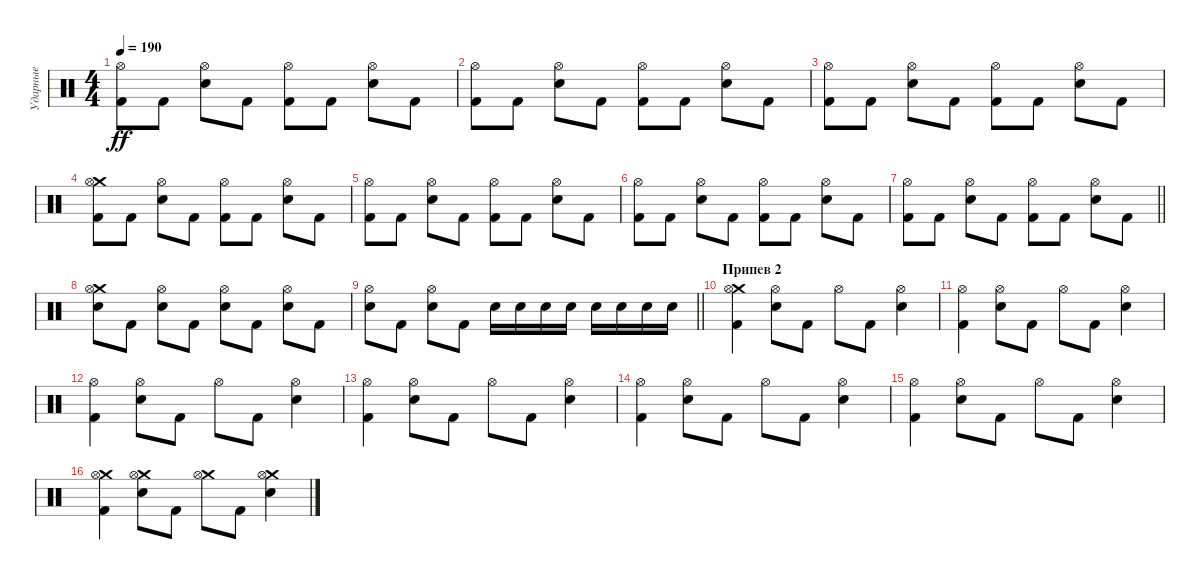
\track ("Ударные" "Ударные") {instrument percussion}
\staff {score}
\articulation defaults
\ts (4 4)
\tempo 190
\clef neutral
\ks c
("Kick (hit) 2" "Hi-Hat (open)").8{dy ff} "Kick (hit) 2".8 ("Electric Snare (hit)" "Hi-Hat (open)").8 "Kick (hit) 2".8 ("Kick (hit) 2" "Hi-Hat (open)").8 "Kick (hit) 2".8 ("Electric Snare (hit)" "Hi-Hat (open)").8 "Kick (hit) 2".8 |
("Kick (hit) 2" "Hi-Hat (open)").8 "Kick (hit) 2".8 ("Electric Snare (hit)" "Hi-Hat (open)").8 "Kick (hit) 2".8 ("Kick (hit) 2" "Hi-Hat (open)").8 "Kick (hit) 2".8 ("Electric Snare (hit)" "Hi-Hat (open)").8 "Kick (hit) 2".8 |
("Kick (hit) 2" "Hi-Hat (open)").8 "Kick (hit) 2".8 ("Electric Snare (hit)" "Hi-Hat (open)").8 "Kick (hit) 2".8 ("Kick (hit) 2" "Hi-Hat (open)").8 "Kick (hit) 2".8 ("Electric Snare (hit)" "Hi-Hat (open)").8 "Kick (hit) 2".8 |
("Crash medium (hit)" "Kick (hit) 2" "Hi-Hat (open)").8 "Kick (hit) 2".8 ("Electric Snare (hit)" "Hi-Hat (open)").8 "Kick (hit) 2".8 ("Kick (hit) 2" "Hi-Hat (open)").8 "Kick (hit) 2".8 ("Electric Snare (hit)" "Hi-Hat (open)").8 "Kick (hit) 2".8 |
("Kick (hit) 2" "Hi-Hat (open)").8 "Kick (hit) 2".8 ("Electric Snare (hit)" "Hi-Hat (open)").8 "Kick (hit) 2".8 ("Kick (hit) 2" "Hi-Hat (open)").8 "Kick (hit) 2".8 ("Electric Snare (hit)" "Hi-Hat (open)").8 "Kick (hit) 2".8 |
("Kick (hit) 2" "Hi-Hat (open)").8 "Kick (hit) 2".8 ("Electric Snare (hit)" "Hi-Hat (open)").8 "Kick (hit) 2".8 ("Kick (hit) 2" "Hi-Hat (open)").8 "Kick (hit) 2".8 ("Electric Snare (hit)" "Hi-Hat (open)").8 "Kick (hit) 2".8 |
\barLineRight lightlight
("Kick (hit) 2" "Hi-Hat (open)").8 "Kick (hit) 2".8 ("Electric Snare (hit)" "Hi-Hat (open)").8 "Kick (hit) 2".8 ("Kick (hit) 2" "Hi-Hat (open)").8 "Kick (hit) 2".8 ("Electric Snare (hit)" "Hi-Hat (open)").8 "Kick (hit) 2".8 |
("Crash medium (hit)" "Electric Snare (hit)" "Hi-Hat (open)").8 "Kick (hit) 2".8 ("Electric Snare (hit)" "Hi-Hat (open)").8 "Kick (hit) 2".8 ("Electric Snare (hit)" "Hi-Hat (open)").8 "Kick (hit) 2".8 ("Electric Snare (hit)" "Hi-Hat (open)").8 "Kick (hit) 2".8 |
\barLineRight lightlight
("Electric Snare (hit)" "Hi-Hat (open)").8 "Kick (hit) 2".8 ("Electric Snare (hit)" "Hi-Hat (open)").8 "Kick (hit) 2".8 "Electric Snare (hit)".16 "Electric Snare (hit)".16 "Electric Snare (hit)".16 "Electric Snare (hit)".16 "Electric Snare (hit)".16 "Electric Snare (hit)".16 "Electric Snare (hit)".16 "Electric Snare (hit)".16 |
\section ("" "Припев 2")
("Crash medium (hit)" "Kick (hit) 2" "Hi-Hat (open)").4 ("Electric Snare (hit)" "Hi-Hat (open)").8 "Kick (hit) 2".8 "Hi-Hat (open)".8 "Kick (hit) 2".8 ("Electric Snare (hit)" "Hi-Hat (open)").4 |
("Kick (hit) 2" "Hi-Hat (open)").4 ("Electric Snare (hit)" "Hi-Hat (open)").8 "Kick (hit) 2".8 "Hi-Hat (open)".8 "Kick (hit) 2".8 ("Electric Snare (hit)" "Hi-Hat (open)").4 |
("Kick (hit) 2" "Hi-Hat (open)").4 ("Electric Snare (hit)" "Hi-Hat (open)").8 "Kick (hit) 2".8 "Hi-Hat (open)".8 "Kick (hit) 2".8 ("Electric Snare (hit)" "Hi-Hat (open)").4 |
("Kick (hit) 2" "Hi-Hat (open)").4 ("Electric Snare (hit)" "Hi-Hat (open)").8 "Kick (hit) 2".8 "Hi-Hat (open)".8 "Kick (hit) 2".8 ("Electric Snare (hit)" "Hi-Hat (open)").4 |
("Kick (hit) 2" "Hi-Hat (open)").4 ("Electric Snare (hit)" "Hi-Hat (open)").8 "Kick (hit) 2".8 "Hi-Hat (open)".8 "Kick (hit) 2".8 ("Electric Snare (hit)" "Hi-Hat (open)").4 |
("Kick (hit) 2" "Hi-Hat (open)").4 ("Electric Snare (hit)" "Hi-Hat (open)").8 "Kick (hit) 2".8 "Hi-Hat (open)".8 "Kick (hit) 2".8 ("Electric Snare (hit)" "Hi-Hat (open)").4 |
("Crash medium (hit)" "Kick (hit) 2" "Hi-Hat (open)").4 ("Crash medium (hit)" "Electric Snare (hit)" "Hi-Hat (open)").8 "Kick (hit) 2".8 ("Crash medium (hit)" "Hi-Hat (open)").8 "Kick (hit) 2".8 ("Crash medium (hit)" "Electric Snare (hit)" "Hi-Hat (open)").4
